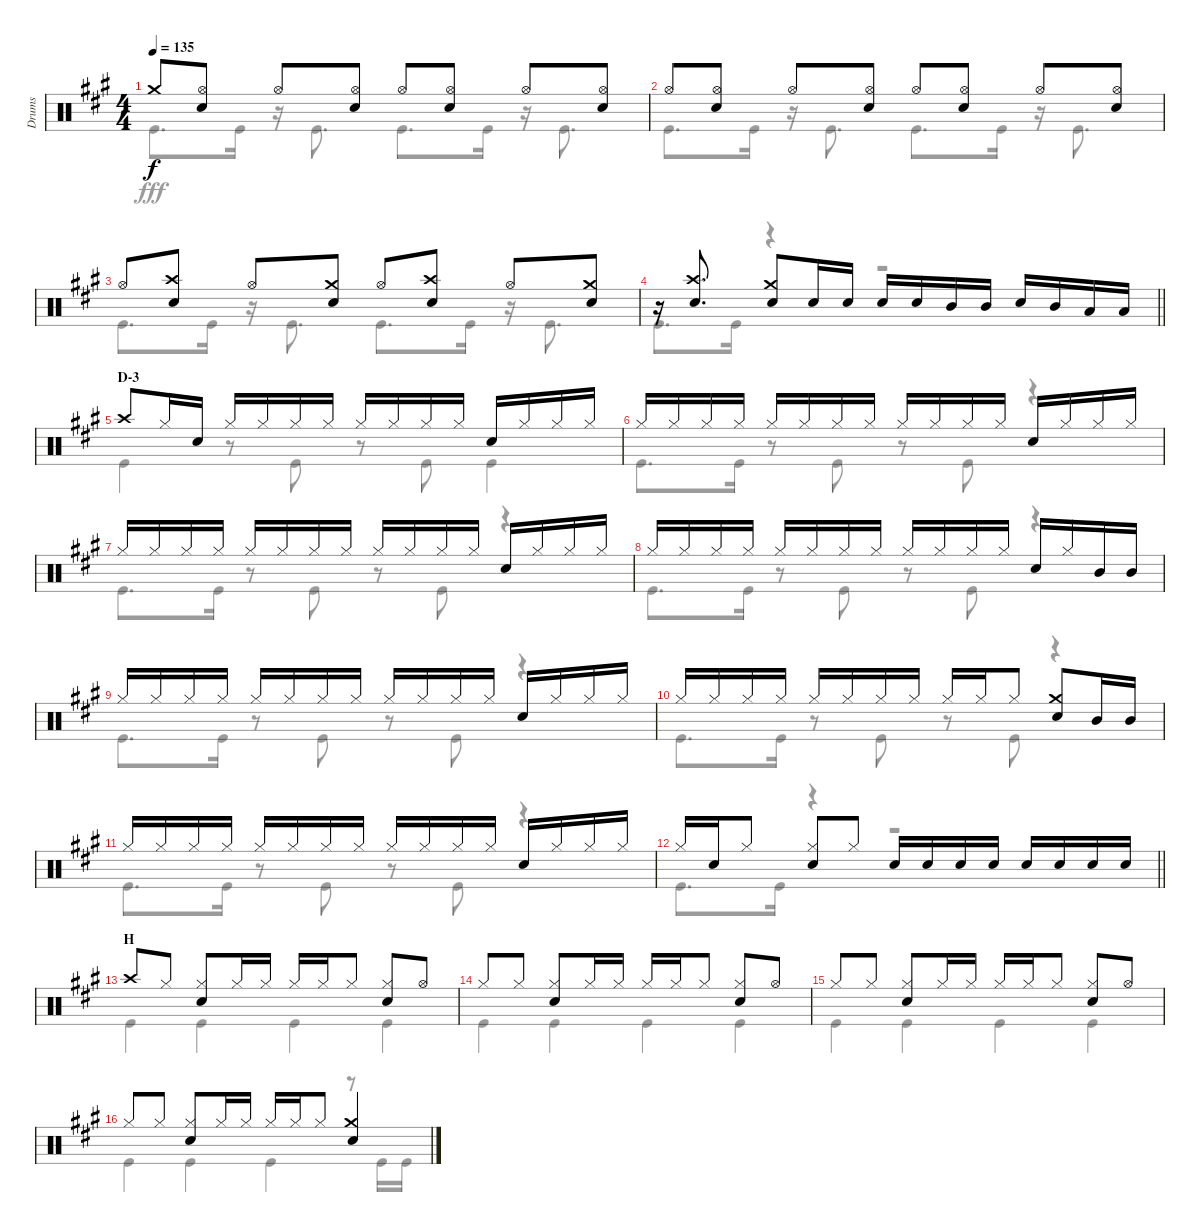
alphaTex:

\track ("Drums" "Drums") {instrument percussion}
\staff {score}
\articulation defaults
\voice
\ts (4 4)
\tempo 135
\clef neutral
\ks a "Crash medium (hit)".8{dy f}
("Hi-Hat (open)" "Snare (hit) 2").8 "Hi-Hat (open)".8 ("Hi-Hat (open)" "Snare (hit) 2").8 "Hi-Hat (open)".8 ("Hi-Hat (open)" "Snare (hit) 2").8 "Hi-Hat (open)".8 ("Hi-Hat (open)" "Snare (hit) 2").8 |
"Hi-Hat (open)".8 ("Hi-Hat (open)" "Snare (hit) 2").8 "Hi-Hat (open)".8 ("Hi-Hat (open)" "Snare (hit) 2").8 "Hi-Hat (open)".8 ("Hi-Hat (open)" "Snare (hit) 2").8 "Hi-Hat (open)".8 ("Hi-Hat (open)" "Snare (hit) 2").8 |
"Hi-Hat (open)".8 ("Crash high (hit)" "Snare (hit) 2").8 "Hi-Hat (open)".8 ("Crash medium (hit)" "Snare (hit) 2").8 "Hi-Hat (open)".8 ("Crash high (hit)" "Snare (hit) 2").8 "Hi-Hat (open)".8 ("Crash medium (hit)" "Snare (hit) 2").8 |
\barLineRight lightlight
r.16 ("Crash high (hit)" "Snare (hit) 2").8{d} ("Crash medium (hit)" "Snare (hit) 2").8 "Snare (hit) 2".16 "Snare (hit) 2".16 "Snare (hit) 2".16 "Snare (hit) 2".16 "Mid Tom (hit)".16 "Mid Tom (hit)".16 "Snare (hit) 2".16 "Mid Tom (hit)".16 "Low Tom (hit)".16 "Low Tom (hit)".16 |
\section ("" "D-3")
"Crash high (hit)".8 "Hi-Hat (closed)".16 "Snare (hit) 2".16 "Hi-Hat (closed)".16 "Hi-Hat (closed)".16 "Hi-Hat (closed)".16 "Hi-Hat (closed)".16 "Hi-Hat (closed)".16 "Hi-Hat (closed)".16 "Hi-Hat (closed)".16 "Hi-Hat (closed)".16 "Snare (hit) 2".16 "Hi-Hat (closed)".16 "Hi-Hat (closed)".16 "Hi-Hat (closed)".16 |
"Hi-Hat (closed)".16 "Hi-Hat (closed)".16 "Hi-Hat (closed)".16 "Hi-Hat (closed)".16 "Hi-Hat (closed)".16 "Hi-Hat (closed)".16 "Hi-Hat (closed)".16 "Hi-Hat (closed)".16 "Hi-Hat (closed)".16 "Hi-Hat (closed)".16 "Hi-Hat (closed)".16 "Hi-Hat (closed)".16 "Snare (hit) 2".16 "Hi-Hat (closed)".16 "Hi-Hat (closed)".16 "Hi-Hat (closed)".16 |
"Hi-Hat (closed)".16 "Hi-Hat (closed)".16 "Hi-Hat (closed)".16 "Hi-Hat (closed)".16 "Hi-Hat (closed)".16 "Hi-Hat (closed)".16 "Hi-Hat (closed)".16 "Hi-Hat (closed)".16 "Hi-Hat (closed)".16 "Hi-Hat (closed)".16 "Hi-Hat (closed)".16 "Hi-Hat (closed)".16 "Snare (hit) 2".16 "Hi-Hat (closed)".16 "Hi-Hat (closed)".16 "Hi-Hat (closed)".16 |
"Hi-Hat (closed)".16 "Hi-Hat (closed)".16 "Hi-Hat (closed)".16 "Hi-Hat (closed)".16 "Hi-Hat (closed)".16 "Hi-Hat (closed)".16 "Hi-Hat (closed)".16 "Hi-Hat (closed)".16 "Hi-Hat (closed)".16 "Hi-Hat (closed)".16 "Hi-Hat (closed)".16 "Hi-Hat (closed)".16 "Snare (hit) 2".16 "Hi-Hat (closed)".16 "Mid Tom (hit)".16 "Mid Tom (hit)".16 |
"Hi-Hat (closed)".16 "Hi-Hat (closed)".16 "Hi-Hat (closed)".16 "Hi-Hat (closed)".16 "Hi-Hat (closed)".16 "Hi-Hat (closed)".16 "Hi-Hat (closed)".16 "Hi-Hat (closed)".16 "Hi-Hat (closed)".16 "Hi-Hat (closed)".16 "Hi-Hat (closed)".16 "Hi-Hat (closed)".16 "Snare (hit) 2".16 "Hi-Hat (closed)".16 "Hi-Hat (closed)".16 "Hi-Hat (closed)".16 |
"Hi-Hat (closed)".16 "Hi-Hat (closed)".16 "Hi-Hat (closed)".16 "Hi-Hat (closed)".16 "Hi-Hat (closed)".16 "Hi-Hat (closed)".16 "Hi-Hat (closed)".16 "Hi-Hat (closed)".16 "Hi-Hat (closed)".16 "Hi-Hat (closed)".16 "Hi-Hat (closed)".8 ("Crash medium (hit)" "Snare (hit) 2").8 "Mid Tom (hit)".16 "Mid Tom (hit)".16 |
"Hi-Hat (closed)".16 "Hi-Hat (closed)".16 "Hi-Hat (closed)".16 "Hi-Hat (closed)".16 "Hi-Hat (closed)".16 "Hi-Hat (closed)".16 "Hi-Hat (closed)".16 "Hi-Hat (closed)".16 "Hi-Hat (closed)".16 "Hi-Hat (closed)".16 "Hi-Hat (closed)".16 "Hi-Hat (closed)".16 "Snare (hit) 2".16 "Hi-Hat (closed)".16 "Hi-Hat (closed)".16 "Hi-Hat (closed)".16 |
\barLineRight lightlight "Hi-Hat (closed)".16 "Snare (hit) 2".16 "Hi-Hat (closed)".8
("Hi-Hat (closed)" "Snare (hit) 2").8 "Hi-Hat (closed)".8 "Snare (hit) 2".16 "Snare (hit) 2".16 "Snare (hit) 2".16 "Snare (hit) 2".16 "Snare (hit) 2".16 "Snare (hit) 2".16 "Snare (hit) 2".16 "Snare (hit) 2".16 |
\section ("" "H")
"Crash high (hit)".8 "Hi-Hat (closed)".8 ("Hi-Hat (closed)" "Snare (hit) 2").8 "Hi-Hat (closed)".16 "Hi-Hat (closed)".16 "Hi-Hat (closed)".16 "Hi-Hat (closed)".16 "Hi-Hat (closed)".8 ("Hi-Hat (closed)" "Snare (hit) 2").8 "Hi-Hat (open)".8 |
"Hi-Hat (closed)".8 "Hi-Hat (closed)".8 ("Hi-Hat (closed)" "Snare (hit) 2").8 "Hi-Hat (closed)".16 "Hi-Hat (closed)".16 "Hi-Hat (closed)".16 "Hi-Hat (closed)".16 "Hi-Hat (closed)".8 ("Hi-Hat (closed)" "Snare (hit) 2").8 "Hi-Hat (open)".8 |
"Hi-Hat (closed)".8 "Hi-Hat (closed)".8 ("Hi-Hat (closed)" "Snare (hit) 2").8 "Hi-Hat (closed)".16 "Hi-Hat (closed)".16 "Hi-Hat (closed)".16 "Hi-Hat (closed)".16 "Hi-Hat (closed)".8 ("Hi-Hat (closed)" "Snare (hit) 2").8 "Hi-Hat (open)".8 |
"Hi-Hat (closed)".8 "Hi-Hat (closed)".8 ("Hi-Hat (closed)" "Snare (hit) 2").8 "Hi-Hat (closed)".16 "Hi-Hat (closed)".16 "Hi-Hat (closed)".16 "Hi-Hat (closed)".16 "Hi-Hat (closed)".8 ("Crash medium (hit)" "Snare (hit) 2").4
\voice
\clef neutral
\ottava regular
\simile none
\ks a "Kick (hit)".8{d dy fff} "Kick (hit)".16
r.16 "Kick (hit)".8{d} "Kick (hit)".8{d} "Kick (hit)".16 r.16 "Kick (hit)".8{d} |
"Kick (hit)".8{d} "Kick (hit)".16 r.16 "Kick (hit)".8{d} "Kick (hit)".8{d} "Kick (hit)".16 r.16 "Kick (hit)".8{d} |
"Kick (hit)".8{d} "Kick (hit)".16 r.16 "Kick (hit)".8{d} "Kick (hit)".8{d} "Kick (hit)".16 r.16 "Kick (hit)".8{d} |
\barLineRight lightlight "Kick (hit)".8{d} "Kick (hit)".16
r.4 r.2 |
"Kick (hit)".4 r.8 "Kick (hit)".8 r.8 "Kick (hit)".8 "Kick (hit)".4 |
"Kick (hit)".8{d} "Kick (hit)".16 r.8 "Kick (hit)".8 r.8 "Kick (hit)".8 r.4 |
"Kick (hit)".8{d} "Kick (hit)".16 r.8 "Kick (hit)".8 r.8 "Kick (hit)".8 r.4 |
"Kick (hit)".8{d} "Kick (hit)".16 r.8 "Kick (hit)".8 r.8 "Kick (hit)".8 r.4 |
"Kick (hit)".8{d} "Kick (hit)".16 r.8 "Kick (hit)".8 r.8 "Kick (hit)".8 r.4 |
"Kick (hit)".8{d} "Kick (hit)".16 r.8 "Kick (hit)".8 r.8 "Kick (hit)".8 r.4 |
"Kick (hit)".8{d} "Kick (hit)".16 r.8 "Kick (hit)".8 r.8 "Kick (hit)".8 r.4 |
\barLineRight lightlight "Kick (hit)".8{d} "Kick (hit)".16
r.4 r.2 |
"Kick (hit)".4 "Kick (hit)".4 "Kick (hit)".4 "Kick (hit)".4 |
"Kick (hit)".4 "Kick (hit)".4 "Kick (hit)".4 "Kick (hit)".4 |
"Kick (hit)".4 "Kick (hit)".4 "Kick (hit)".4 "Kick (hit)".4 |
"Kick (hit)".4 "Kick (hit)".4 "Kick (hit)".4 r.8 "Kick (hit)".16 "Kick (hit)".16
